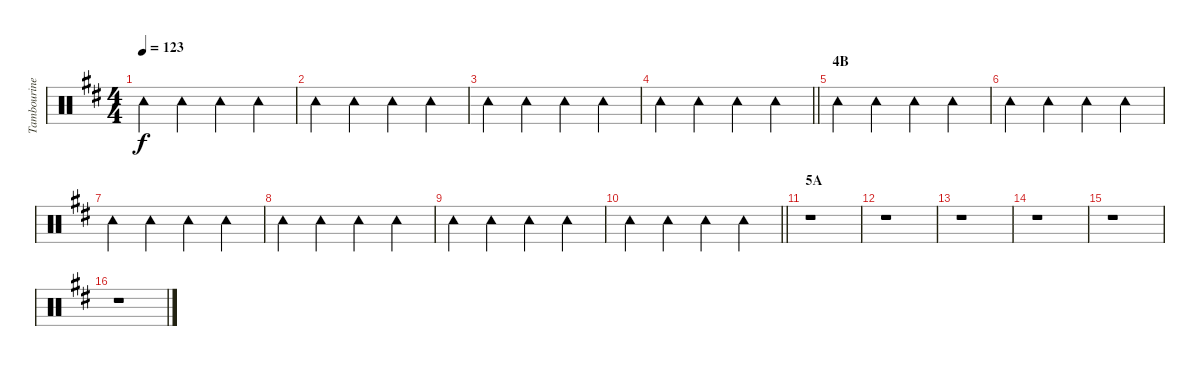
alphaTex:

\track ("Tambourine" "Tambourine") {instrument percussion}
\staff {score}
\articulation defaults
\ts (4 4)
\tempo 123
\clef neutral
\ks d "Tambourine (hit)".4{dy f} "Tambourine (hit)".4 "Tambourine (hit)".4 "Tambourine (hit)".4
|
"Tambourine (hit)".4 "Tambourine (hit)".4 "Tambourine (hit)".4 "Tambourine (hit)".4 |
"Tambourine (hit)".4 "Tambourine (hit)".4 "Tambourine (hit)".4 "Tambourine (hit)".4 |
\barLineRight lightlight "Tambourine (hit)".4 "Tambourine (hit)".4 "Tambourine (hit)".4 "Tambourine (hit)".4
|
\section ("" "4B")
"Tambourine (hit)".4 "Tambourine (hit)".4 "Tambourine (hit)".4 "Tambourine (hit)".4 |
"Tambourine (hit)".4 "Tambourine (hit)".4 "Tambourine (hit)".4 "Tambourine (hit)".4 |
"Tambourine (hit)".4 "Tambourine (hit)".4 "Tambourine (hit)".4 "Tambourine (hit)".4 |
"Tambourine (hit)".4 "Tambourine (hit)".4 "Tambourine (hit)".4 "Tambourine (hit)".4 |
"Tambourine (hit)".4 "Tambourine (hit)".4 "Tambourine (hit)".4 "Tambourine (hit)".4 |
\barLineRight lightlight "Tambourine (hit)".4 "Tambourine (hit)".4 "Tambourine (hit)".4 "Tambourine (hit)".4
|
\section ("" "5A")
r.1 |
r.1 |
r.1 |
r.1 |
r.1 |
r.1
